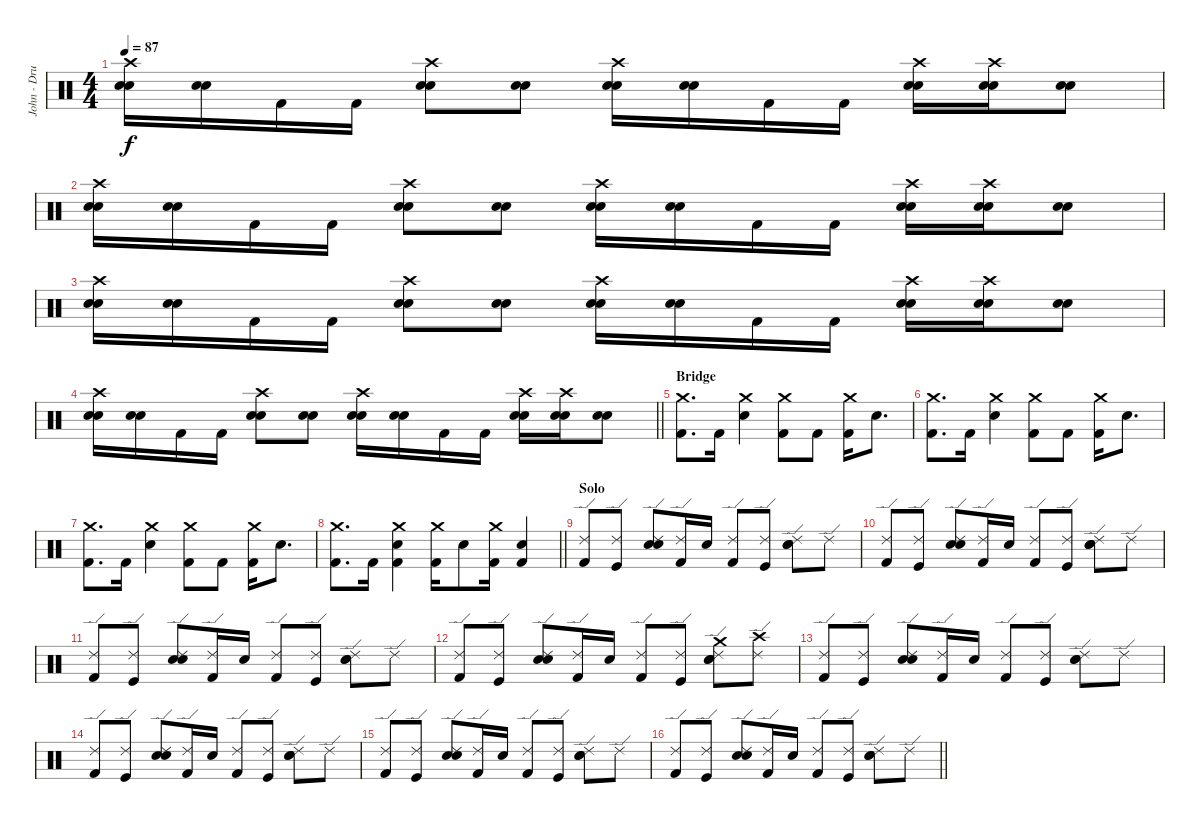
\track ("John - Drum" "John - Dru") {instrument percussion}
\staff {score}
\articulation defaults
\ts (4 4)
\tempo 87
\clef neutral
\ks c
("Crash high (hit)" "Snare (hit) 2" "Electric Snare (hit)").16{dy f} ("Snare (hit) 2" "Electric Snare (hit)").16 "Kick (hit) 2".16 "Kick (hit) 2".16 ("Crash high (hit)" "Snare (hit) 2" "Electric Snare (hit)").8 ("Snare (hit) 2" "Electric Snare (hit)").8 ("Crash high (hit)" "Snare (hit) 2" "Electric Snare (hit)").16 ("Snare (hit) 2" "Electric Snare (hit)").16 "Kick (hit) 2".16 "Kick (hit) 2".16 ("Crash high (hit)" "Snare (hit) 2" "Electric Snare (hit)").16 ("Crash high (hit)" "Snare (hit) 2" "Electric Snare (hit)").16 ("Snare (hit) 2" "Electric Snare (hit)").8 |
("Crash high (hit)" "Snare (hit) 2" "Electric Snare (hit)").16 ("Snare (hit) 2" "Electric Snare (hit)").16 "Kick (hit) 2".16 "Kick (hit) 2".16 ("Crash high (hit)" "Snare (hit) 2" "Electric Snare (hit)").8 ("Snare (hit) 2" "Electric Snare (hit)").8 ("Crash high (hit)" "Snare (hit) 2" "Electric Snare (hit)").16 ("Snare (hit) 2" "Electric Snare (hit)").16 "Kick (hit) 2".16 "Kick (hit) 2".16 ("Crash high (hit)" "Snare (hit) 2" "Electric Snare (hit)").16 ("Crash high (hit)" "Snare (hit) 2" "Electric Snare (hit)").16 ("Snare (hit) 2" "Electric Snare (hit)").8 |
("Crash high (hit)" "Snare (hit) 2" "Electric Snare (hit)").16 ("Snare (hit) 2" "Electric Snare (hit)").16 "Kick (hit) 2".16 "Kick (hit) 2".16 ("Crash high (hit)" "Snare (hit) 2" "Electric Snare (hit)").8 ("Snare (hit) 2" "Electric Snare (hit)").8 ("Crash high (hit)" "Snare (hit) 2" "Electric Snare (hit)").16 ("Snare (hit) 2" "Electric Snare (hit)").16 "Kick (hit) 2".16 "Kick (hit) 2".16 ("Crash high (hit)" "Snare (hit) 2" "Electric Snare (hit)").16 ("Crash high (hit)" "Snare (hit) 2" "Electric Snare (hit)").16 ("Snare (hit) 2" "Electric Snare (hit)").8 |
\barLineRight lightlight
("Crash high (hit)" "Snare (hit) 2" "Electric Snare (hit)").16 ("Snare (hit) 2" "Electric Snare (hit)").16 "Kick (hit) 2".16 "Kick (hit) 2".16 ("Crash high (hit)" "Snare (hit) 2" "Electric Snare (hit)").8 ("Snare (hit) 2" "Electric Snare (hit)").8 ("Crash high (hit)" "Snare (hit) 2" "Electric Snare (hit)").16 ("Snare (hit) 2" "Electric Snare (hit)").16 "Kick (hit) 2".16 "Kick (hit) 2".16 ("Crash high (hit)" "Snare (hit) 2" "Electric Snare (hit)").16 ("Crash high (hit)" "Snare (hit) 2" "Electric Snare (hit)").16 ("Snare (hit) 2" "Electric Snare (hit)").8 |
\section ("" "Bridge")
("Crash medium (hit)" "Kick (hit) 2").8{d} "Kick (hit) 2".16 ("Crash medium (hit)" "Electric Snare (hit)").4 ("Crash medium (hit)" "Kick (hit) 2").8 "Kick (hit) 2".8 ("Crash medium (hit)" "Kick (hit) 2").16 "Electric Snare (hit)".8{d} |
("Crash medium (hit)" "Kick (hit) 2").8{d} "Kick (hit) 2".16 ("Crash medium (hit)" "Electric Snare (hit)").4 ("Crash medium (hit)" "Kick (hit) 2").8 "Kick (hit) 2".8 ("Crash medium (hit)" "Kick (hit) 2").16 "Electric Snare (hit)".8{d} |
("Crash medium (hit)" "Kick (hit) 2").8{d} "Kick (hit) 2".16 ("Crash medium (hit)" "Electric Snare (hit)").4 ("Crash medium (hit)" "Kick (hit) 2").8 "Kick (hit) 2".8 ("Crash medium (hit)" "Kick (hit) 2").16 "Electric Snare (hit)".8{d} |
\barLineRight lightlight
("Crash medium (hit)" "Kick (hit) 2").8{d} "Kick (hit) 2".16 ("Crash medium (hit)" "Electric Snare (hit)" "Kick (hit) 2").4 ("Crash medium (hit)" "Kick (hit) 2").16 "Electric Snare (hit)".8 ("Crash medium (hit)" "Kick (hit) 2").16 ("Electric Snare (hit)" "Kick (hit) 2").4 |
\section ("" "Solo")
("Ride (edge) 2" "Kick (hit) 2").8 ("Ride (edge) 2" "Kick (hit)").8 ("Ride (edge) 2" "Electric Snare (hit)" "Snare (hit) 2").8 ("Ride (edge) 2" "Kick (hit) 2").16 "Electric Snare (hit)".16 ("Ride (edge) 2" "Kick (hit) 2").8 ("Ride (edge) 2" "Kick (hit)").8 ("Ride (edge) 2" "Electric Snare (hit)" "Snare (hit) 2").8 "Ride (edge) 2".8 |
("Ride (edge) 2" "Kick (hit) 2").8 ("Ride (edge) 2" "Kick (hit)").8 ("Ride (edge) 2" "Electric Snare (hit)" "Snare (hit) 2").8 ("Ride (edge) 2" "Kick (hit) 2").16 "Electric Snare (hit)".16 ("Ride (edge) 2" "Kick (hit) 2").8 ("Ride (edge) 2" "Kick (hit)").8 ("Ride (edge) 2" "Electric Snare (hit)" "Snare (hit) 2").8 "Ride (edge) 2".8 |
("Ride (edge) 2" "Kick (hit) 2").8 ("Ride (edge) 2" "Kick (hit)").8 ("Ride (edge) 2" "Electric Snare (hit)" "Snare (hit) 2").8 ("Ride (edge) 2" "Kick (hit) 2").16 "Electric Snare (hit)".16 ("Ride (edge) 2" "Kick (hit) 2").8 ("Ride (edge) 2" "Kick (hit)").8 ("Ride (edge) 2" "Electric Snare (hit)" "Snare (hit) 2").8 "Ride (edge) 2".8 |
("Ride (edge) 2" "Kick (hit) 2").8 ("Ride (edge) 2" "Kick (hit)").8 ("Ride (edge) 2" "Electric Snare (hit)" "Snare (hit) 2").8 ("Ride (edge) 2" "Kick (hit) 2").16 "Electric Snare (hit)".16 ("Ride (edge) 2" "Kick (hit) 2").8 ("Ride (edge) 2" "Kick (hit)").8 ("Crash medium (hit)" "Ride (edge) 2" "Electric Snare (hit)" "Snare (hit) 2").8 ("Crash high (hit)" "Ride (edge) 2").8 |
("Ride (edge) 2" "Kick (hit) 2").8 ("Ride (edge) 2" "Kick (hit)").8 ("Ride (edge) 2" "Electric Snare (hit)" "Snare (hit) 2").8 ("Ride (edge) 2" "Kick (hit) 2").16 "Electric Snare (hit)".16 ("Ride (edge) 2" "Kick (hit) 2").8 ("Ride (edge) 2" "Kick (hit)").8 ("Ride (edge) 2" "Electric Snare (hit)" "Snare (hit) 2").8 "Ride (edge) 2".8 |
("Ride (edge) 2" "Kick (hit) 2").8 ("Ride (edge) 2" "Kick (hit)").8 ("Ride (edge) 2" "Electric Snare (hit)" "Snare (hit) 2").8 ("Ride (edge) 2" "Kick (hit) 2").16 "Electric Snare (hit)".16 ("Ride (edge) 2" "Kick (hit) 2").8 ("Ride (edge) 2" "Kick (hit)").8 ("Ride (edge) 2" "Electric Snare (hit)" "Snare (hit) 2").8 "Ride (edge) 2".8 |
("Ride (edge) 2" "Kick (hit) 2").8 ("Ride (edge) 2" "Kick (hit)").8 ("Ride (edge) 2" "Electric Snare (hit)" "Snare (hit) 2").8 ("Ride (edge) 2" "Kick (hit) 2").16 "Electric Snare (hit)".16 ("Ride (edge) 2" "Kick (hit) 2").8 ("Ride (edge) 2" "Kick (hit)").8 ("Ride (edge) 2" "Electric Snare (hit)" "Snare (hit) 2").8 "Ride (edge) 2".8 |
\barLineRight lightlight
("Ride (edge) 2" "Kick (hit) 2").8 ("Ride (edge) 2" "Kick (hit)").8 ("Ride (edge) 2" "Electric Snare (hit)" "Snare (hit) 2").8 ("Ride (edge) 2" "Kick (hit) 2").16 "Electric Snare (hit)".16 ("Ride (edge) 2" "Kick (hit) 2").8 ("Ride (edge) 2" "Kick (hit)").8 ("Ride (edge) 2" "Electric Snare (hit)" "Snare (hit) 2").8 "Ride (edge) 2".8
